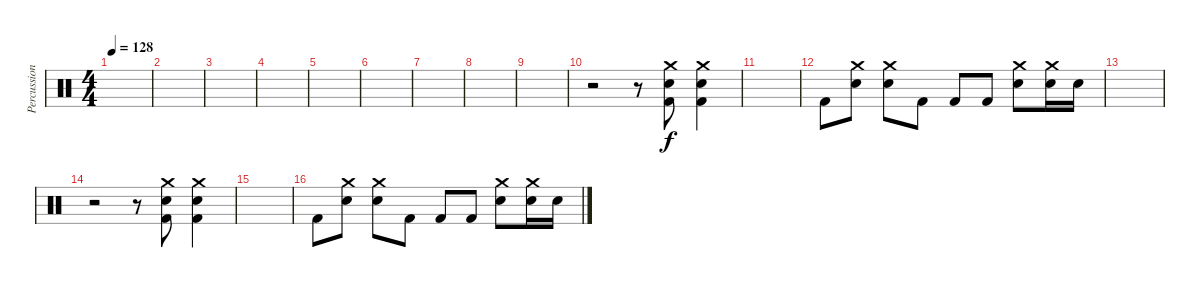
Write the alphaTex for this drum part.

\track ("Percussion" "Percussion") {instrument percussion}
\staff {score}
\articulation defaults
\ts (4 4)
\tempo 128
\clef neutral
\ks c
|
|
|
|
|
|
|
|
|
r.2 r.8 ("Crash medium (hit)" "Snare (hit) 2" "Kick (hit) 2").8 ("Crash medium (hit)" "Snare (hit) 2" "Kick (hit) 2").4 |
|
"Kick (hit) 2".8 ("Crash medium (hit)" "Snare (hit) 2").8 ("Crash medium (hit)" "Snare (hit) 2").8 "Kick (hit) 2".8 "Kick (hit) 2".8 "Kick (hit) 2".8 ("Crash medium (hit)" "Snare (hit) 2").8 ("Crash medium (hit)" "Snare (hit) 2").16 "Snare (hit) 2".16 |
|
r.2 r.8 ("Crash medium (hit)" "Snare (hit) 2" "Kick (hit) 2").8 ("Crash medium (hit)" "Snare (hit) 2" "Kick (hit) 2").4 |
|
"Kick (hit) 2".8 ("Crash medium (hit)" "Snare (hit) 2").8 ("Crash medium (hit)" "Snare (hit) 2").8 "Kick (hit) 2".8 "Kick (hit) 2".8 "Kick (hit) 2".8 ("Crash medium (hit)" "Snare (hit) 2").8 ("Crash medium (hit)" "Snare (hit) 2").16 "Snare (hit) 2".16
